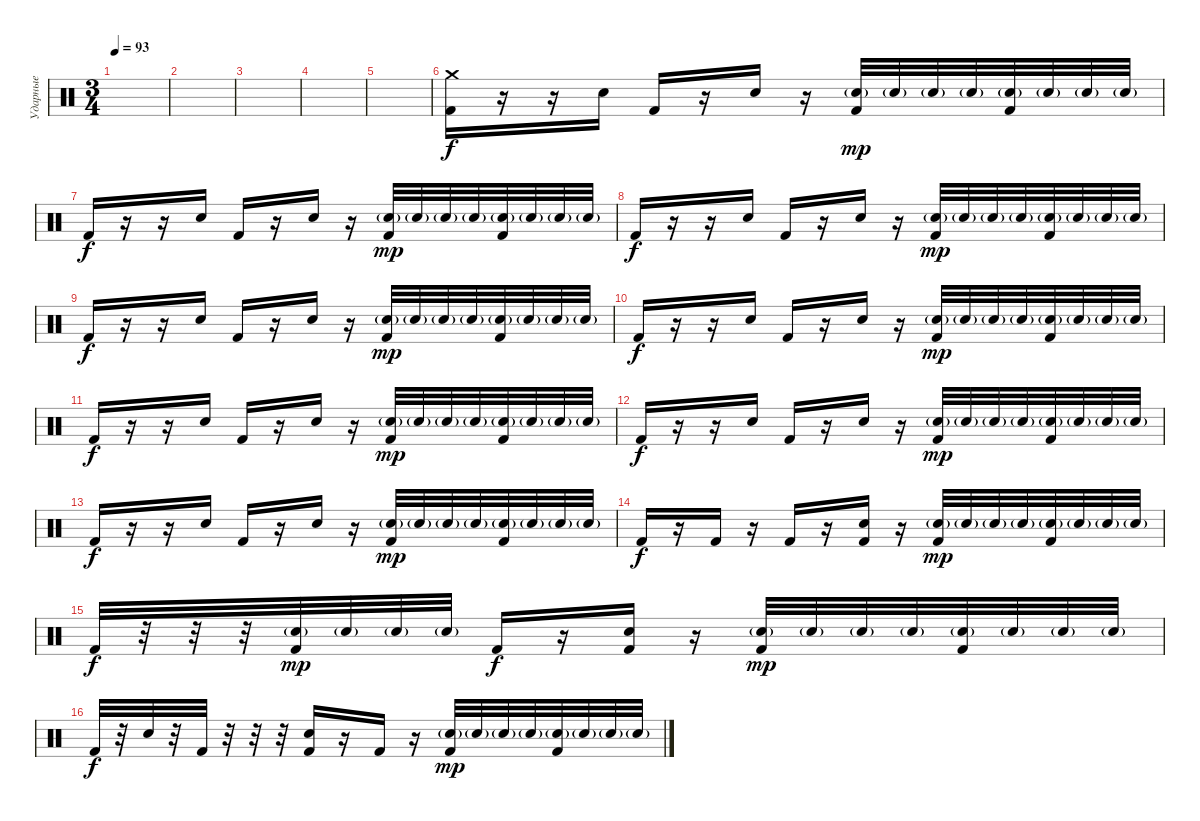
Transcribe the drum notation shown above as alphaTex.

\track ("Ударные" "Ударные") {instrument percussion}
\staff {score}
\articulation defaults
\ts (3 4)
\tempo 93
\clef neutral
\ks c
|
|
|
|
|
("Crash medium (hit)" "Kick (hit) 2").16{dy f} r.16 r.16 "Electric Snare (hit)".16 "Kick (hit) 2".16 r.16 "Electric Snare (hit)".16 r.16 ("Electric Snare (hit)"{g} "Kick (hit) 2").32{dy mp} "Electric Snare (hit)"{g}.32 "Electric Snare (hit)"{g}.32 "Electric Snare (hit)"{g}.32 ("Electric Snare (hit)"{g} "Kick (hit) 2").32 "Electric Snare (hit)"{g}.32 "Electric Snare (hit)"{g}.32 "Electric Snare (hit)"{g}.32 |
"Kick (hit) 2".16{dy f} r.16 r.16 "Electric Snare (hit)".16 "Kick (hit) 2".16 r.16 "Electric Snare (hit)".16 r.16 ("Electric Snare (hit)"{g} "Kick (hit) 2").32{dy mp} "Electric Snare (hit)"{g}.32 "Electric Snare (hit)"{g}.32 "Electric Snare (hit)"{g}.32 ("Electric Snare (hit)"{g} "Kick (hit) 2").32 "Electric Snare (hit)"{g}.32 "Electric Snare (hit)"{g}.32 "Electric Snare (hit)"{g}.32 |
"Kick (hit) 2".16{dy f} r.16 r.16 "Electric Snare (hit)".16 "Kick (hit) 2".16 r.16 "Electric Snare (hit)".16 r.16 ("Electric Snare (hit)"{g} "Kick (hit) 2").32{dy mp} "Electric Snare (hit)"{g}.32 "Electric Snare (hit)"{g}.32 "Electric Snare (hit)"{g}.32 ("Electric Snare (hit)"{g} "Kick (hit) 2").32 "Electric Snare (hit)"{g}.32 "Electric Snare (hit)"{g}.32 "Electric Snare (hit)"{g}.32 |
"Kick (hit) 2".16{dy f} r.16 r.16 "Electric Snare (hit)".16 "Kick (hit) 2".16 r.16 "Electric Snare (hit)".16 r.16 ("Electric Snare (hit)"{g} "Kick (hit) 2").32{dy mp} "Electric Snare (hit)"{g}.32 "Electric Snare (hit)"{g}.32 "Electric Snare (hit)"{g}.32 ("Electric Snare (hit)"{g} "Kick (hit) 2").32 "Electric Snare (hit)"{g}.32 "Electric Snare (hit)"{g}.32 "Electric Snare (hit)"{g}.32 |
"Kick (hit) 2".16{dy f} r.16 r.16 "Electric Snare (hit)".16 "Kick (hit) 2".16 r.16 "Electric Snare (hit)".16 r.16 ("Electric Snare (hit)"{g} "Kick (hit) 2").32{dy mp} "Electric Snare (hit)"{g}.32 "Electric Snare (hit)"{g}.32 "Electric Snare (hit)"{g}.32 ("Electric Snare (hit)"{g} "Kick (hit) 2").32 "Electric Snare (hit)"{g}.32 "Electric Snare (hit)"{g}.32 "Electric Snare (hit)"{g}.32 |
"Kick (hit) 2".16{dy f} r.16 r.16 "Electric Snare (hit)".16 "Kick (hit) 2".16 r.16 "Electric Snare (hit)".16 r.16 ("Electric Snare (hit)"{g} "Kick (hit) 2").32{dy mp} "Electric Snare (hit)"{g}.32 "Electric Snare (hit)"{g}.32 "Electric Snare (hit)"{g}.32 ("Electric Snare (hit)"{g} "Kick (hit) 2").32 "Electric Snare (hit)"{g}.32 "Electric Snare (hit)"{g}.32 "Electric Snare (hit)"{g}.32 |
"Kick (hit) 2".16{dy f} r.16 r.16 "Electric Snare (hit)".16 "Kick (hit) 2".16 r.16 "Electric Snare (hit)".16 r.16 ("Electric Snare (hit)"{g} "Kick (hit) 2").32{dy mp} "Electric Snare (hit)"{g}.32 "Electric Snare (hit)"{g}.32 "Electric Snare (hit)"{g}.32 ("Electric Snare (hit)"{g} "Kick (hit) 2").32 "Electric Snare (hit)"{g}.32 "Electric Snare (hit)"{g}.32 "Electric Snare (hit)"{g}.32 |
"Kick (hit) 2".16{dy f} r.16 r.16 "Electric Snare (hit)".16 "Kick (hit) 2".16 r.16 "Electric Snare (hit)".16 r.16 ("Electric Snare (hit)"{g} "Kick (hit) 2").32{dy mp} "Electric Snare (hit)"{g}.32 "Electric Snare (hit)"{g}.32 "Electric Snare (hit)"{g}.32 ("Electric Snare (hit)"{g} "Kick (hit) 2").32 "Electric Snare (hit)"{g}.32 "Electric Snare (hit)"{g}.32 "Electric Snare (hit)"{g}.32 |
"Kick (hit) 2".16{dy f} r.16 "Kick (hit) 2".16 r.16 "Kick (hit) 2".16 r.16 ("Electric Snare (hit)" "Kick (hit) 2").16 r.16 ("Electric Snare (hit)"{g} "Kick (hit) 2").32{dy mp} "Electric Snare (hit)"{g}.32 "Electric Snare (hit)"{g}.32 "Electric Snare (hit)"{g}.32 ("Electric Snare (hit)"{g} "Kick (hit) 2").32 "Electric Snare (hit)"{g}.32 "Electric Snare (hit)"{g}.32 "Electric Snare (hit)"{g}.32 |
"Kick (hit) 2".32{dy f} r.32 r.32 r.32 ("Electric Snare (hit)"{g} "Kick (hit) 2").32{dy mp} "Electric Snare (hit)"{g}.32 "Electric Snare (hit)"{g}.32 "Electric Snare (hit)"{g}.32 "Kick (hit) 2".16{dy f} r.16 ("Electric Snare (hit)" "Kick (hit) 2").16 r.16 ("Electric Snare (hit)"{g} "Kick (hit) 2").32{dy mp} "Electric Snare (hit)"{g}.32 "Electric Snare (hit)"{g}.32 "Electric Snare (hit)"{g}.32 ("Electric Snare (hit)"{g} "Kick (hit) 2").32 "Electric Snare (hit)"{g}.32 "Electric Snare (hit)"{g}.32 "Electric Snare (hit)"{g}.32 |
"Kick (hit) 2".32{dy f} r.32 "Electric Snare (hit)".32 r.32 "Kick (hit) 2".32 r.32 r.32 r.32 ("Electric Snare (hit)" "Kick (hit) 2").16 r.16 "Kick (hit) 2".16 r.16 ("Electric Snare (hit)"{g} "Kick (hit) 2").32{dy mp} "Electric Snare (hit)"{g}.32 "Electric Snare (hit)"{g}.32 "Electric Snare (hit)"{g}.32 ("Electric Snare (hit)"{g} "Kick (hit) 2").32 "Electric Snare (hit)"{g}.32 "Electric Snare (hit)"{g}.32 "Electric Snare (hit)"{g}.32
